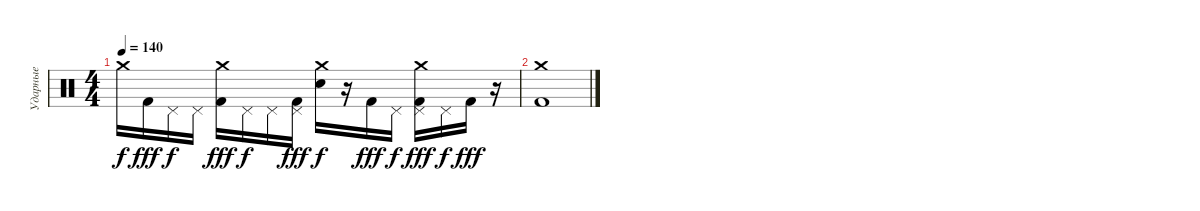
\track ("Ударные" "Ударные") {instrument percussion}
\staff {score}
\articulation defaults
\ts (4 4)
\tempo 140
\clef neutral
\ks c "Crash medium (hit)".16{dy f} "Kick (hit) 2".16{dy fff} "Pedal Hi-Hat (hit)".16{dy f} "Pedal Hi-Hat (hit)".16
("Crash medium (hit)" "Kick (hit) 2").16{dy fff} "Pedal Hi-Hat (hit)".16{dy f} "Pedal Hi-Hat (hit)".16 ("Pedal Hi-Hat (hit)" "Kick (hit) 2").16{dy fff} ("Crash medium (hit)" "Electric Snare (hit)").16{dy f} r.16 "Kick (hit) 2".16{dy fff} "Pedal Hi-Hat (hit)".16{dy f} ("Crash medium (hit)" "Pedal Hi-Hat (hit)" "Kick (hit) 2").16{dy fff} "Pedal Hi-Hat (hit)".16{dy f} "Kick (hit) 2".16{dy fff} r.16 |
("Crash medium (hit)" "Kick (hit) 2").1
